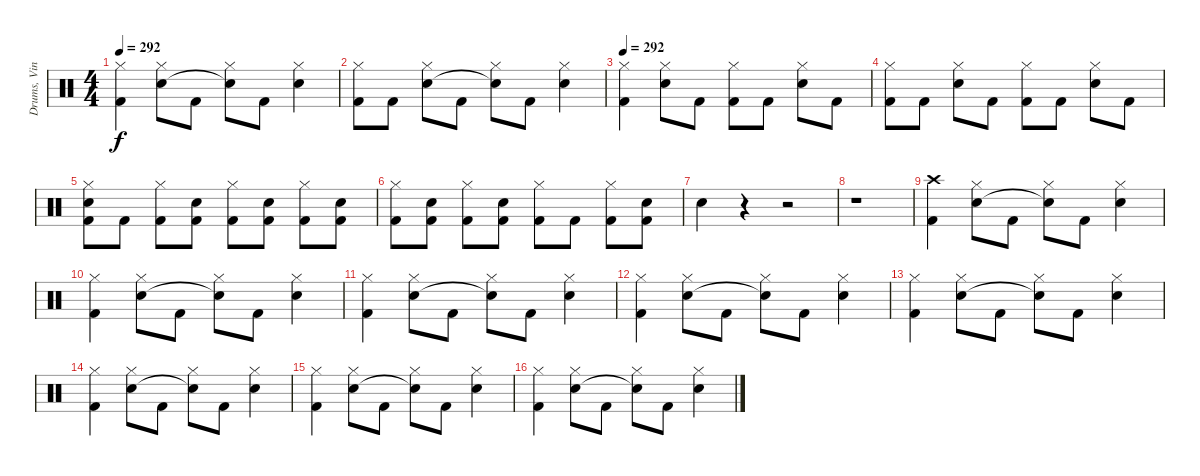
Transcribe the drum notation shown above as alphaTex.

\track ("Drums, Vinnie" "Drums, Vin") {instrument percussion}
\staff {score}
\articulation defaults
\ts (4 4)
\tempo 292
\clef neutral
\ks c
("Hi-Hat (closed)" "Kick (hit) 2").4{dy f} ("Hi-Hat (closed)" "Electric Snare (hit)").8 "Kick (hit) 2".8 ("Hi-Hat (closed)" "Snare (hit)"{t}).8 "Kick (hit) 2".8 ("Hi-Hat (closed)" "Electric Snare (hit)").4 |
("Hi-Hat (closed)" "Kick (hit) 2").8 "Kick (hit) 2".8 ("Hi-Hat (closed)" "Electric Snare (hit)").8 "Kick (hit) 2".8 ("Hi-Hat (closed)" "Snare (hit)"{t}).8 "Kick (hit) 2".8 ("Hi-Hat (closed)" "Electric Snare (hit)").4 |
\tempo 292
("Hi-Hat (closed)" "Kick (hit) 2").4 ("Hi-Hat (closed)" "Electric Snare (hit)").8 "Kick (hit) 2".8 ("Hi-Hat (closed)" "Kick (hit) 2").8 "Kick (hit) 2".8 ("Hi-Hat (closed)" "Electric Snare (hit)").8 "Kick (hit) 2".8 |
("Hi-Hat (closed)" "Kick (hit) 2").8 "Kick (hit) 2".8 ("Hi-Hat (closed)" "Electric Snare (hit)").8 "Kick (hit) 2".8 ("Hi-Hat (closed)" "Kick (hit) 2").8 "Kick (hit) 2".8 ("Hi-Hat (closed)" "Electric Snare (hit)").8 "Kick (hit) 2".8 |
("Hi-Hat (closed)" "Electric Snare (hit)" "Kick (hit) 2").8 "Kick (hit) 2".8 ("Hi-Hat (closed)" "Kick (hit) 2").8 ("Electric Snare (hit)" "Kick (hit) 2").8 ("Hi-Hat (closed)" "Kick (hit) 2").8 ("Electric Snare (hit)" "Kick (hit) 2").8 ("Hi-Hat (closed)" "Kick (hit) 2").8 ("Electric Snare (hit)" "Kick (hit) 2").8 |
("Hi-Hat (closed)" "Kick (hit) 2").8 ("Electric Snare (hit)" "Kick (hit) 2").8 ("Hi-Hat (closed)" "Kick (hit) 2").8 ("Electric Snare (hit)" "Kick (hit) 2").8 ("Hi-Hat (closed)" "Kick (hit) 2").8 "Kick (hit) 2".8 ("Hi-Hat (closed)" "Kick (hit) 2").8 ("Electric Snare (hit)" "Kick (hit) 2").8 |
"Electric Snare (hit)".4 r.4 r.2 |
r.1 |
("Crash high (hit)" "Kick (hit) 2").4 ("Hi-Hat (closed)" "Electric Snare (hit)").8 "Kick (hit) 2".8 ("Hi-Hat (closed)" "Snare (hit)"{t}).8 "Kick (hit) 2".8 ("Hi-Hat (closed)" "Electric Snare (hit)").4 |
("Hi-Hat (closed)" "Kick (hit) 2").4 ("Hi-Hat (closed)" "Electric Snare (hit)").8 "Kick (hit) 2".8 ("Hi-Hat (closed)" "Snare (hit)"{t}).8 "Kick (hit) 2".8 ("Hi-Hat (closed)" "Electric Snare (hit)").4 |
("Hi-Hat (closed)" "Kick (hit) 2").4 ("Hi-Hat (closed)" "Electric Snare (hit)").8 "Kick (hit) 2".8 ("Hi-Hat (closed)" "Snare (hit)"{t}).8 "Kick (hit) 2".8 ("Hi-Hat (closed)" "Electric Snare (hit)").4 |
("Hi-Hat (closed)" "Kick (hit) 2").4 ("Hi-Hat (closed)" "Electric Snare (hit)").8 "Kick (hit) 2".8 ("Hi-Hat (closed)" "Snare (hit)"{t}).8 "Kick (hit) 2".8 ("Hi-Hat (closed)" "Electric Snare (hit)").4 |
("Hi-Hat (closed)" "Kick (hit) 2").4 ("Hi-Hat (closed)" "Electric Snare (hit)").8 "Kick (hit) 2".8 ("Hi-Hat (closed)" "Snare (hit)"{t}).8 "Kick (hit) 2".8 ("Hi-Hat (closed)" "Electric Snare (hit)").4 |
("Hi-Hat (closed)" "Kick (hit) 2").4 ("Hi-Hat (closed)" "Electric Snare (hit)").8 "Kick (hit) 2".8 ("Hi-Hat (closed)" "Snare (hit)"{t}).8 "Kick (hit) 2".8 ("Hi-Hat (closed)" "Electric Snare (hit)").4 |
("Hi-Hat (closed)" "Kick (hit) 2").4 ("Hi-Hat (closed)" "Electric Snare (hit)").8 "Kick (hit) 2".8 ("Hi-Hat (closed)" "Snare (hit)"{t}).8 "Kick (hit) 2".8 ("Hi-Hat (closed)" "Electric Snare (hit)").4 |
("Hi-Hat (closed)" "Kick (hit) 2").4 ("Hi-Hat (closed)" "Electric Snare (hit)").8 "Kick (hit) 2".8 ("Hi-Hat (closed)" "Snare (hit)"{t}).8 "Kick (hit) 2".8 ("Hi-Hat (closed)" "Electric Snare (hit)").4
